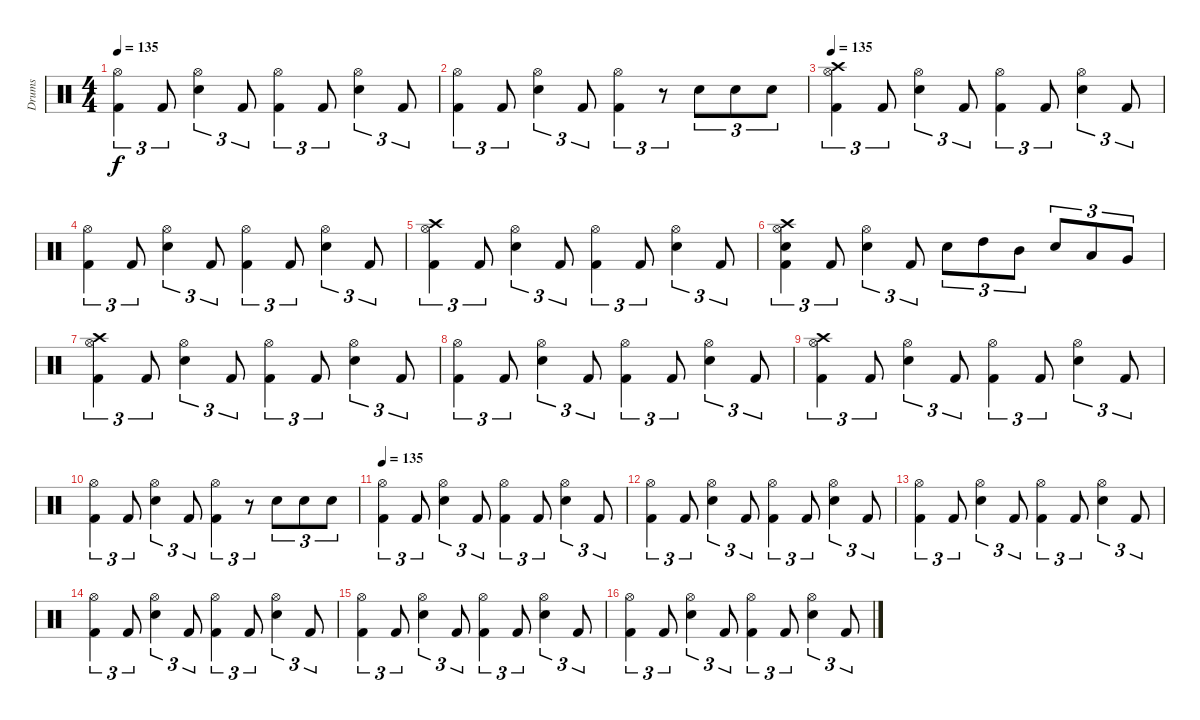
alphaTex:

\track ("Drums" "Drums") {instrument percussion}
\staff {score}
\articulation defaults
\ts (4 4)
\tempo 135
\clef neutral
\ks c
("Hi-Hat (open)" "Kick (hit) 2").4{tu (3 2) dy f} "Kick (hit) 2".8{tu (3 2)} ("Hi-Hat (open)" "Electric Snare (hit)").4{tu (3 2)} "Kick (hit) 2".8{tu (3 2)} ("Hi-Hat (open)" "Kick (hit) 2").4{tu (3 2)} "Kick (hit) 2".8{tu (3 2)} ("Hi-Hat (open)" "Electric Snare (hit)").4{tu (3 2)} "Kick (hit) 2".8{tu (3 2)} |
("Hi-Hat (open)" "Kick (hit) 2").4{tu (3 2)} "Kick (hit) 2".8{tu (3 2)} ("Hi-Hat (open)" "Electric Snare (hit)").4{tu (3 2)} "Kick (hit) 2".8{tu (3 2)} ("Hi-Hat (open)" "Kick (hit) 2").4{tu (3 2)} r.8{tu (3 2)} "Electric Snare (hit)".8{tu (3 2)} "Electric Snare (hit)".8{tu (3 2)} "Electric Snare (hit)".8{tu (3 2)} |
\tempo 135
("Crash high (hit)" "Hi-Hat (open)" "Kick (hit) 2").4{tu (3 2)} "Kick (hit) 2".8{tu (3 2)} ("Hi-Hat (open)" "Electric Snare (hit)").4{tu (3 2)} "Kick (hit) 2".8{tu (3 2)} ("Hi-Hat (open)" "Kick (hit) 2").4{tu (3 2)} "Kick (hit) 2".8{tu (3 2)} ("Hi-Hat (open)" "Electric Snare (hit)").4{tu (3 2)} "Kick (hit) 2".8{tu (3 2)} |
("Hi-Hat (open)" "Kick (hit) 2").4{tu (3 2)} "Kick (hit) 2".8{tu (3 2)} ("Hi-Hat (open)" "Electric Snare (hit)").4{tu (3 2)} "Kick (hit) 2".8{tu (3 2)} ("Hi-Hat (open)" "Kick (hit) 2").4{tu (3 2)} "Kick (hit) 2".8{tu (3 2)} ("Hi-Hat (open)" "Electric Snare (hit)").4{tu (3 2)} "Kick (hit) 2".8{tu (3 2)} |
("Crash high (hit)" "Hi-Hat (open)" "Kick (hit) 2").4{tu (3 2)} "Kick (hit) 2".8{tu (3 2)} ("Hi-Hat (open)" "Electric Snare (hit)").4{tu (3 2)} "Kick (hit) 2".8{tu (3 2)} ("Hi-Hat (open)" "Kick (hit) 2").4{tu (3 2)} "Kick (hit) 2".8{tu (3 2)} ("Hi-Hat (open)" "Electric Snare (hit)").4{tu (3 2)} "Kick (hit) 2".8{tu (3 2)} |
("Crash high (hit)" "Hi-Hat (open)" "Electric Snare (hit)" "Kick (hit) 2").4{tu (3 2)} "Kick (hit) 2".8{tu (3 2)} ("Hi-Hat (open)" "Electric Snare (hit)").4{tu (3 2)} "Kick (hit) 2".8{tu (3 2)} "Electric Snare (hit)".8{tu (3 2)} "High Tom (hit)".8{tu (3 2)} "Mid Tom (hit)".8{tu (3 2)} "Electric Snare (hit)".8{tu (3 2)} "Low Tom (hit)".8{tu (3 2)} "Very Low Tom (hit)".8{tu (3 2)} |
("Crash high (hit)" "Hi-Hat (open)" "Kick (hit) 2").4{tu (3 2)} "Kick (hit) 2".8{tu (3 2)} ("Hi-Hat (open)" "Electric Snare (hit)").4{tu (3 2)} "Kick (hit) 2".8{tu (3 2)} ("Hi-Hat (open)" "Kick (hit) 2").4{tu (3 2)} "Kick (hit) 2".8{tu (3 2)} ("Hi-Hat (open)" "Electric Snare (hit)").4{tu (3 2)} "Kick (hit) 2".8{tu (3 2)} |
("Hi-Hat (open)" "Kick (hit) 2").4{tu (3 2)} "Kick (hit) 2".8{tu (3 2)} ("Hi-Hat (open)" "Electric Snare (hit)").4{tu (3 2)} "Kick (hit) 2".8{tu (3 2)} ("Hi-Hat (open)" "Kick (hit) 2").4{tu (3 2)} "Kick (hit) 2".8{tu (3 2)} ("Hi-Hat (open)" "Electric Snare (hit)").4{tu (3 2)} "Kick (hit) 2".8{tu (3 2)} |
("Crash high (hit)" "Hi-Hat (open)" "Kick (hit) 2").4{tu (3 2)} "Kick (hit) 2".8{tu (3 2)} ("Hi-Hat (open)" "Electric Snare (hit)").4{tu (3 2)} "Kick (hit) 2".8{tu (3 2)} ("Hi-Hat (open)" "Kick (hit) 2").4{tu (3 2)} "Kick (hit) 2".8{tu (3 2)} ("Hi-Hat (open)" "Electric Snare (hit)").4{tu (3 2)} "Kick (hit) 2".8{tu (3 2)} |
("Hi-Hat (open)" "Kick (hit) 2").4{tu (3 2)} "Kick (hit) 2".8{tu (3 2)} ("Hi-Hat (open)" "Electric Snare (hit)").4{tu (3 2)} "Kick (hit) 2".8{tu (3 2)} ("Hi-Hat (open)" "Kick (hit) 2").4{tu (3 2)} r.8{tu (3 2)} "Electric Snare (hit)".8{tu (3 2)} "Electric Snare (hit)".8{tu (3 2)} "Electric Snare (hit)".8{tu (3 2)} |
\tempo 135
("Hi-Hat (open)" "Kick (hit) 2").4{tu (3 2)} "Kick (hit) 2".8{tu (3 2)} ("Hi-Hat (open)" "Electric Snare (hit)").4{tu (3 2)} "Kick (hit) 2".8{tu (3 2)} ("Hi-Hat (open)" "Kick (hit) 2").4{tu (3 2)} "Kick (hit) 2".8{tu (3 2)} ("Hi-Hat (open)" "Electric Snare (hit)").4{tu (3 2)} "Kick (hit) 2".8{tu (3 2)} |
("Hi-Hat (open)" "Kick (hit) 2").4{tu (3 2)} "Kick (hit) 2".8{tu (3 2)} ("Hi-Hat (open)" "Electric Snare (hit)").4{tu (3 2)} "Kick (hit) 2".8{tu (3 2)} ("Hi-Hat (open)" "Kick (hit) 2").4{tu (3 2)} "Kick (hit) 2".8{tu (3 2)} ("Hi-Hat (open)" "Electric Snare (hit)").4{tu (3 2)} "Kick (hit) 2".8{tu (3 2)} |
("Hi-Hat (open)" "Kick (hit) 2").4{tu (3 2)} "Kick (hit) 2".8{tu (3 2)} ("Hi-Hat (open)" "Electric Snare (hit)").4{tu (3 2)} "Kick (hit) 2".8{tu (3 2)} ("Hi-Hat (open)" "Kick (hit) 2").4{tu (3 2)} "Kick (hit) 2".8{tu (3 2)} ("Hi-Hat (open)" "Electric Snare (hit)").4{tu (3 2)} "Kick (hit) 2".8{tu (3 2)} |
("Hi-Hat (open)" "Kick (hit) 2").4{tu (3 2)} "Kick (hit) 2".8{tu (3 2)} ("Hi-Hat (open)" "Electric Snare (hit)").4{tu (3 2)} "Kick (hit) 2".8{tu (3 2)} ("Hi-Hat (open)" "Kick (hit) 2").4{tu (3 2)} "Kick (hit) 2".8{tu (3 2)} ("Hi-Hat (open)" "Electric Snare (hit)").4{tu (3 2)} "Kick (hit) 2".8{tu (3 2)} |
("Hi-Hat (open)" "Kick (hit) 2").4{tu (3 2)} "Kick (hit) 2".8{tu (3 2)} ("Hi-Hat (open)" "Electric Snare (hit)").4{tu (3 2)} "Kick (hit) 2".8{tu (3 2)} ("Hi-Hat (open)" "Kick (hit) 2").4{tu (3 2)} "Kick (hit) 2".8{tu (3 2)} ("Hi-Hat (open)" "Electric Snare (hit)").4{tu (3 2)} "Kick (hit) 2".8{tu (3 2)} |
("Hi-Hat (open)" "Kick (hit) 2").4{tu (3 2)} "Kick (hit) 2".8{tu (3 2)} ("Hi-Hat (open)" "Electric Snare (hit)").4{tu (3 2)} "Kick (hit) 2".8{tu (3 2)} ("Hi-Hat (open)" "Kick (hit) 2").4{tu (3 2)} "Kick (hit) 2".8{tu (3 2)} ("Hi-Hat (open)" "Electric Snare (hit)").4{tu (3 2)} "Kick (hit) 2".8{tu (3 2)}
